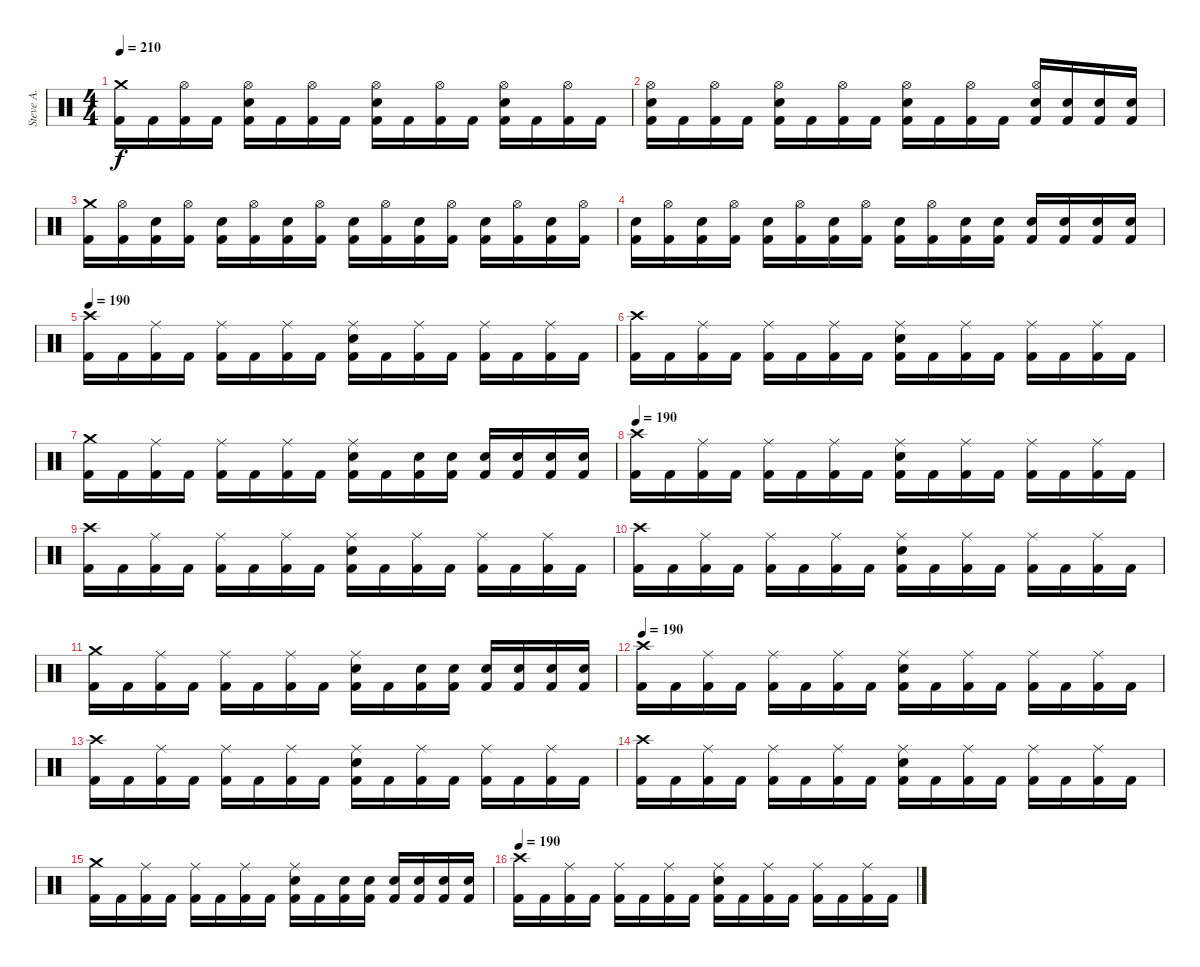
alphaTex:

\track ("Steve A." "Steve A.") {instrument percussion}
\staff {score}
\articulation defaults
\ts (4 4)
\tempo 210
\clef neutral
\ks c
("Kick (hit) 2" "Crash medium (hit)").16{dy f} "Kick (hit) 2".16 ("Kick (hit) 2" "Hi-Hat (open)").16 "Kick (hit) 2".16 ("Kick (hit) 2" "Hi-Hat (open)" "Electric Snare (hit)").16 "Kick (hit) 2".16 ("Kick (hit) 2" "Hi-Hat (open)").16 "Kick (hit) 2".16 ("Kick (hit) 2" "Hi-Hat (open)" "Electric Snare (hit)").16 "Kick (hit) 2".16 ("Kick (hit) 2" "Hi-Hat (open)").16 "Kick (hit) 2".16 ("Kick (hit) 2" "Hi-Hat (open)" "Electric Snare (hit)").16 "Kick (hit) 2".16 ("Kick (hit) 2" "Hi-Hat (open)").16 "Kick (hit) 2".16 |
("Kick (hit) 2" "Hi-Hat (open)" "Electric Snare (hit)").16 "Kick (hit) 2".16 ("Kick (hit) 2" "Hi-Hat (open)").16 "Kick (hit) 2".16 ("Kick (hit) 2" "Hi-Hat (open)" "Electric Snare (hit)").16 "Kick (hit) 2".16 ("Kick (hit) 2" "Hi-Hat (open)").16 "Kick (hit) 2".16 ("Kick (hit) 2" "Hi-Hat (open)" "Electric Snare (hit)").16 "Kick (hit) 2".16 ("Kick (hit) 2" "Hi-Hat (open)").16 "Kick (hit) 2".16 ("Kick (hit) 2" "Hi-Hat (open)" "Electric Snare (hit)").16 ("Kick (hit) 2" "Electric Snare (hit)").16 ("Kick (hit) 2" "Electric Snare (hit)").16 ("Kick (hit) 2" "Electric Snare (hit)").16 |
("Kick (hit) 2" "Crash medium (hit)").16 ("Kick (hit) 2" "Hi-Hat (open)").16 ("Kick (hit) 2" "Electric Snare (hit)").16 ("Kick (hit) 2" "Hi-Hat (open)").16 ("Kick (hit) 2" "Electric Snare (hit)").16 ("Kick (hit) 2" "Hi-Hat (open)").16 ("Kick (hit) 2" "Electric Snare (hit)").16 ("Kick (hit) 2" "Hi-Hat (open)").16 ("Kick (hit) 2" "Electric Snare (hit)").16 ("Kick (hit) 2" "Hi-Hat (open)").16 ("Kick (hit) 2" "Electric Snare (hit)").16 ("Kick (hit) 2" "Hi-Hat (open)").16 ("Kick (hit) 2" "Electric Snare (hit)").16 ("Kick (hit) 2" "Hi-Hat (open)").16 ("Kick (hit) 2" "Electric Snare (hit)").16 ("Kick (hit) 2" "Hi-Hat (open)").16 |
("Kick (hit) 2" "Electric Snare (hit)").16 ("Kick (hit) 2" "Hi-Hat (open)").16 ("Kick (hit) 2" "Electric Snare (hit)").16 ("Kick (hit) 2" "Hi-Hat (open)").16 ("Kick (hit) 2" "Electric Snare (hit)").16 ("Kick (hit) 2" "Hi-Hat (open)").16 ("Kick (hit) 2" "Electric Snare (hit)").16 ("Kick (hit) 2" "Hi-Hat (open)").16 ("Kick (hit) 2" "Electric Snare (hit)").16 ("Kick (hit) 2" "Hi-Hat (open)").16 ("Kick (hit) 2" "Electric Snare (hit)").16 ("Kick (hit) 2" "Electric Snare (hit)").16 ("Kick (hit) 2" "Electric Snare (hit)").16 ("Kick (hit) 2" "Electric Snare (hit)").16 ("Kick (hit) 2" "Electric Snare (hit)").16 ("Kick (hit) 2" "Electric Snare (hit)").16 |
\tempo 190
("Kick (hit) 2" "Crash high (hit)").16 "Kick (hit) 2".16 ("Kick (hit) 2" "Ride (middle)").16 "Kick (hit) 2".16 ("Kick (hit) 2" "Ride (middle)").16 "Kick (hit) 2".16 ("Kick (hit) 2" "Ride (middle)").16 "Kick (hit) 2".16 ("Kick (hit) 2" "Ride (middle)" "Electric Snare (hit)").16 "Kick (hit) 2".16 ("Kick (hit) 2" "Ride (middle)").16 "Kick (hit) 2".16 ("Kick (hit) 2" "Ride (middle)").16 "Kick (hit) 2".16 ("Kick (hit) 2" "Ride (middle)").16 "Kick (hit) 2".16 |
("Kick (hit) 2" "Crash high (hit)").16 "Kick (hit) 2".16 ("Kick (hit) 2" "Ride (middle)").16 "Kick (hit) 2".16 ("Kick (hit) 2" "Ride (middle)").16 "Kick (hit) 2".16 ("Kick (hit) 2" "Ride (middle)").16 "Kick (hit) 2".16 ("Kick (hit) 2" "Ride (middle)" "Electric Snare (hit)").16 "Kick (hit) 2".16 ("Kick (hit) 2" "Ride (middle)").16 "Kick (hit) 2".16 ("Kick (hit) 2" "Ride (middle)").16 "Kick (hit) 2".16 ("Kick (hit) 2" "Ride (middle)").16 "Kick (hit) 2".16 |
("Kick (hit) 2" "Crash medium (hit)").16 "Kick (hit) 2".16 ("Kick (hit) 2" "Ride (middle)").16 "Kick (hit) 2".16 ("Kick (hit) 2" "Ride (middle)").16 "Kick (hit) 2".16 ("Kick (hit) 2" "Ride (middle)").16 "Kick (hit) 2".16 ("Kick (hit) 2" "Ride (middle)" "Electric Snare (hit)").16 "Kick (hit) 2".16 ("Kick (hit) 2" "Electric Snare (hit)").16 ("Kick (hit) 2" "Electric Snare (hit)").16 ("Kick (hit) 2" "Electric Snare (hit)").16 ("Kick (hit) 2" "Electric Snare (hit)").16 ("Kick (hit) 2" "Electric Snare (hit)").16 ("Kick (hit) 2" "Electric Snare (hit)").16 |
\tempo 190
("Kick (hit) 2" "Crash high (hit)").16 "Kick (hit) 2".16 ("Kick (hit) 2" "Ride (middle)").16 "Kick (hit) 2".16 ("Kick (hit) 2" "Ride (middle)").16 "Kick (hit) 2".16 ("Kick (hit) 2" "Ride (middle)").16 "Kick (hit) 2".16 ("Kick (hit) 2" "Ride (middle)" "Electric Snare (hit)").16 "Kick (hit) 2".16 ("Kick (hit) 2" "Ride (middle)").16 "Kick (hit) 2".16 ("Kick (hit) 2" "Ride (middle)").16 "Kick (hit) 2".16 ("Kick (hit) 2" "Ride (middle)").16 "Kick (hit) 2".16 |
("Kick (hit) 2" "Crash high (hit)").16 "Kick (hit) 2".16 ("Kick (hit) 2" "Ride (middle)").16 "Kick (hit) 2".16 ("Kick (hit) 2" "Ride (middle)").16 "Kick (hit) 2".16 ("Kick (hit) 2" "Ride (middle)").16 "Kick (hit) 2".16 ("Kick (hit) 2" "Ride (middle)" "Electric Snare (hit)").16 "Kick (hit) 2".16 ("Kick (hit) 2" "Ride (middle)").16 "Kick (hit) 2".16 ("Kick (hit) 2" "Ride (middle)").16 "Kick (hit) 2".16 ("Kick (hit) 2" "Ride (middle)").16 "Kick (hit) 2".16 |
("Kick (hit) 2" "Crash high (hit)").16 "Kick (hit) 2".16 ("Kick (hit) 2" "Ride (middle)").16 "Kick (hit) 2".16 ("Kick (hit) 2" "Ride (middle)").16 "Kick (hit) 2".16 ("Kick (hit) 2" "Ride (middle)").16 "Kick (hit) 2".16 ("Kick (hit) 2" "Ride (middle)" "Electric Snare (hit)").16 "Kick (hit) 2".16 ("Kick (hit) 2" "Ride (middle)").16 "Kick (hit) 2".16 ("Kick (hit) 2" "Ride (middle)").16 "Kick (hit) 2".16 ("Kick (hit) 2" "Ride (middle)").16 "Kick (hit) 2".16 |
("Kick (hit) 2" "Crash medium (hit)").16 "Kick (hit) 2".16 ("Kick (hit) 2" "Ride (middle)").16 "Kick (hit) 2".16 ("Kick (hit) 2" "Ride (middle)").16 "Kick (hit) 2".16 ("Kick (hit) 2" "Ride (middle)").16 "Kick (hit) 2".16 ("Kick (hit) 2" "Ride (middle)" "Electric Snare (hit)").16 "Kick (hit) 2".16 ("Kick (hit) 2" "Electric Snare (hit)").16 ("Kick (hit) 2" "Electric Snare (hit)").16 ("Kick (hit) 2" "Electric Snare (hit)").16 ("Kick (hit) 2" "Electric Snare (hit)").16 ("Kick (hit) 2" "Electric Snare (hit)").16 ("Kick (hit) 2" "Electric Snare (hit)").16 |
\tempo 190
("Kick (hit) 2" "Crash high (hit)").16 "Kick (hit) 2".16 ("Kick (hit) 2" "Ride (middle)").16 "Kick (hit) 2".16 ("Kick (hit) 2" "Ride (middle)").16 "Kick (hit) 2".16 ("Kick (hit) 2" "Ride (middle)").16 "Kick (hit) 2".16 ("Kick (hit) 2" "Ride (middle)" "Electric Snare (hit)").16 "Kick (hit) 2".16 ("Kick (hit) 2" "Ride (middle)").16 "Kick (hit) 2".16 ("Kick (hit) 2" "Ride (middle)").16 "Kick (hit) 2".16 ("Kick (hit) 2" "Ride (middle)").16 "Kick (hit) 2".16 |
("Kick (hit) 2" "Crash high (hit)").16 "Kick (hit) 2".16 ("Kick (hit) 2" "Ride (middle)").16 "Kick (hit) 2".16 ("Kick (hit) 2" "Ride (middle)").16 "Kick (hit) 2".16 ("Kick (hit) 2" "Ride (middle)").16 "Kick (hit) 2".16 ("Kick (hit) 2" "Ride (middle)" "Electric Snare (hit)").16 "Kick (hit) 2".16 ("Kick (hit) 2" "Ride (middle)").16 "Kick (hit) 2".16 ("Kick (hit) 2" "Ride (middle)").16 "Kick (hit) 2".16 ("Kick (hit) 2" "Ride (middle)").16 "Kick (hit) 2".16 |
("Kick (hit) 2" "Crash high (hit)").16 "Kick (hit) 2".16 ("Kick (hit) 2" "Ride (middle)").16 "Kick (hit) 2".16 ("Kick (hit) 2" "Ride (middle)").16 "Kick (hit) 2".16 ("Kick (hit) 2" "Ride (middle)").16 "Kick (hit) 2".16 ("Kick (hit) 2" "Ride (middle)" "Electric Snare (hit)").16 "Kick (hit) 2".16 ("Kick (hit) 2" "Ride (middle)").16 "Kick (hit) 2".16 ("Kick (hit) 2" "Ride (middle)").16 "Kick (hit) 2".16 ("Kick (hit) 2" "Ride (middle)").16 "Kick (hit) 2".16 |
("Kick (hit) 2" "Crash medium (hit)").16 "Kick (hit) 2".16 ("Kick (hit) 2" "Ride (middle)").16 "Kick (hit) 2".16 ("Kick (hit) 2" "Ride (middle)").16 "Kick (hit) 2".16 ("Kick (hit) 2" "Ride (middle)").16 "Kick (hit) 2".16 ("Kick (hit) 2" "Ride (middle)" "Electric Snare (hit)").16 "Kick (hit) 2".16 ("Kick (hit) 2" "Electric Snare (hit)").16 ("Kick (hit) 2" "Electric Snare (hit)").16 ("Kick (hit) 2" "Electric Snare (hit)").16 ("Kick (hit) 2" "Electric Snare (hit)").16 ("Kick (hit) 2" "Electric Snare (hit)").16 ("Kick (hit) 2" "Electric Snare (hit)").16 |
\tempo 190
("Kick (hit) 2" "Crash high (hit)").16 "Kick (hit) 2".16 ("Kick (hit) 2" "Ride (middle)").16 "Kick (hit) 2".16 ("Kick (hit) 2" "Ride (middle)").16 "Kick (hit) 2".16 ("Kick (hit) 2" "Ride (middle)").16 "Kick (hit) 2".16 ("Kick (hit) 2" "Ride (middle)" "Electric Snare (hit)").16 "Kick (hit) 2".16 ("Kick (hit) 2" "Ride (middle)").16 "Kick (hit) 2".16 ("Kick (hit) 2" "Ride (middle)").16 "Kick (hit) 2".16 ("Kick (hit) 2" "Ride (middle)").16 "Kick (hit) 2".16
